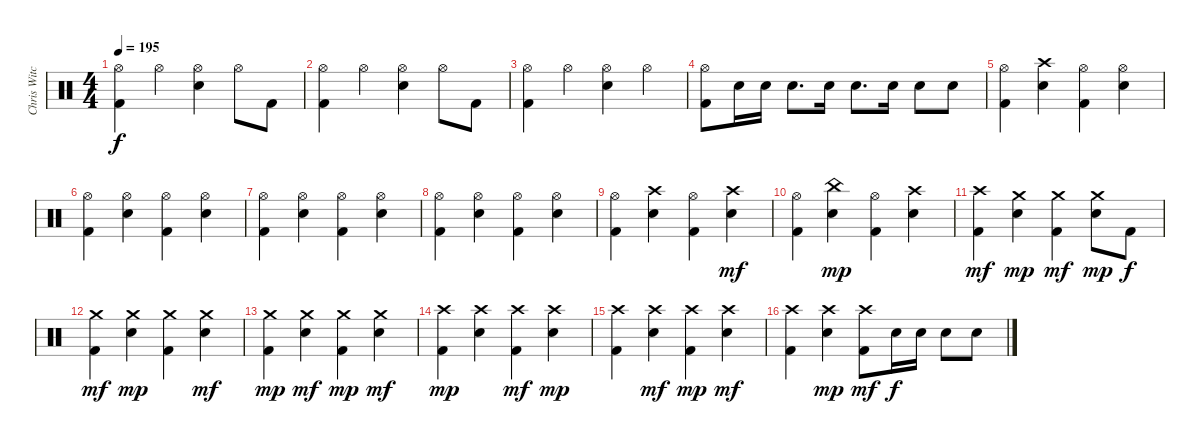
\track ("Chris Witchunter" "Chris Witc") {instrument percussion}
\staff {score}
\articulation defaults
\ts (4 4)
\tempo 195
\clef neutral
\ks c
("Hi-Hat (open)" "Kick (hit) 2").4{dy f} "Hi-Hat (open)".4 ("Hi-Hat (open)" "Snare (hit) 2").4 "Hi-Hat (open)".8 "Kick (hit) 2".8 |
("Hi-Hat (open)" "Kick (hit) 2").4 "Hi-Hat (open)".4 ("Hi-Hat (open)" "Snare (hit) 2").4 "Hi-Hat (open)".8 "Kick (hit) 2".8 |
("Hi-Hat (open)" "Kick (hit) 2").4 "Hi-Hat (open)".4 ("Hi-Hat (open)" "Snare (hit) 2").4 "Hi-Hat (open)".4 |
("Hi-Hat (open)" "Kick (hit) 2").8 "Snare (hit) 2".16 "Snare (hit) 2".16 "Snare (hit) 2".8{d} "Snare (hit) 2".16 "Snare (hit) 2".8{d} "Snare (hit) 2".16 "Snare (hit) 2".8 "Snare (hit) 2".8 |
("Hi-Hat (open)" "Kick (hit) 2").4 ("Crash high (hit)" "Snare (hit) 2").4 ("Hi-Hat (open)" "Kick (hit) 2").4 ("Hi-Hat (open)" "Snare (hit) 2").4 |
("Hi-Hat (open)" "Kick (hit) 2").4 ("Hi-Hat (open)" "Snare (hit) 2").4 ("Hi-Hat (open)" "Kick (hit) 2").4 ("Hi-Hat (open)" "Snare (hit) 2").4 |
("Hi-Hat (open)" "Kick (hit) 2").4 ("Hi-Hat (open)" "Snare (hit) 2").4 ("Hi-Hat (open)" "Kick (hit) 2").4 ("Hi-Hat (open)" "Snare (hit) 2").4 |
("Hi-Hat (open)" "Kick (hit) 2").4 ("Hi-Hat (open)" "Snare (hit) 2").4 ("Hi-Hat (open)" "Kick (hit) 2").4 ("Hi-Hat (open)" "Snare (hit) 2").4 |
("Hi-Hat (open)" "Kick (hit) 2").4 ("Crash high (hit)" "Snare (hit) 2").4 ("Hi-Hat (open)" "Kick (hit) 2").4 ("Crash high (hit)" "Snare (hit) 2").4{dy mf} |
("Hi-Hat (open)" "Kick (hit) 2").4 ("China (hit)" "Snare (hit) 2").4{dy mp} ("Hi-Hat (open)" "Kick (hit) 2").4 ("Crash high (hit)" "Snare (hit) 2").4 |
("Crash high (hit)" "Kick (hit) 2").4{dy mf} ("Crash medium (hit)" "Snare (hit) 2").4{dy mp} ("Crash medium (hit)" "Kick (hit) 2").4{dy mf} ("Crash medium (hit)" "Snare (hit) 2").8{dy mp} "Kick (hit) 2".8{dy f} |
("Crash medium (hit)" "Kick (hit) 2").4{dy mf} ("Crash medium (hit)" "Snare (hit) 2").4{dy mp} ("Crash medium (hit)" "Kick (hit) 2").4 ("Crash medium (hit)" "Snare (hit) 2").4{dy mf} |
("Crash medium (hit)" "Kick (hit) 2").4{dy mp} ("Crash medium (hit)" "Snare (hit) 2").4{dy mf} ("Crash medium (hit)" "Kick (hit) 2").4{dy mp} ("Crash medium (hit)" "Snare (hit) 2").4{dy mf} |
("Crash high (hit)" "Kick (hit) 2").4{dy mp} ("Crash high (hit)" "Snare (hit) 2").4 ("Crash high (hit)" "Kick (hit) 2").4{dy mf} ("Crash high (hit)" "Snare (hit) 2").4{dy mp} |
("Crash high (hit)" "Kick (hit) 2").4 ("Crash high (hit)" "Snare (hit) 2").4{dy mf} ("Crash high (hit)" "Kick (hit) 2").4{dy mp} ("Crash high (hit)" "Snare (hit) 2").4{dy mf} |
("Crash high (hit)" "Kick (hit) 2").4 ("Crash high (hit)" "Snare (hit) 2").4{dy mp} ("Crash high (hit)" "Kick (hit) 2").8{dy mf} "Snare (hit) 2".16{dy f} "Snare (hit) 2".16 "Snare (hit) 2".8 "Snare (hit) 2".8
